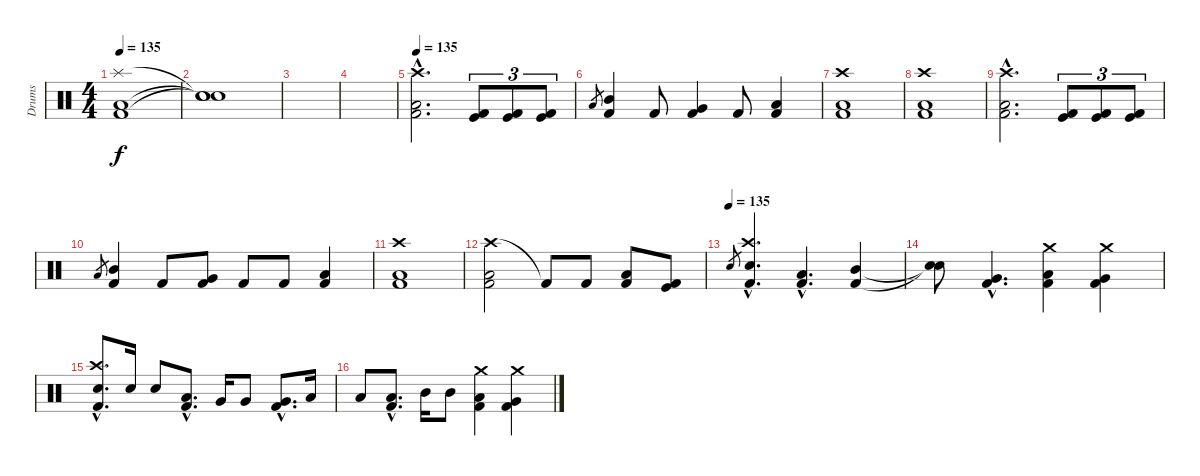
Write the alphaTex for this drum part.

\track ("Drums" "Drums") {instrument percussion}
\staff {score}
\articulation defaults
\ts (4 4)
\tempo 135
\clef neutral
\ks c
("Splash (hit)" "Low Floor Tom (hit)" "Kick (hit) 2").1{dy f} |
("Snare (hit)"{t} "Snare (hit)"{t} "Snare (hit)"{t}).1 |
|
|
\tempo 135
("Crash high (hit)"{hac} "Low Floor Tom (hit)"{hac} "Kick (hit) 2"{hac}).2{d volume 16} ("Kick (hit)" "Kick (hit) 2").8{tu (3 2)} ("Kick (hit)" "Kick (hit) 2").8{tu (3 2)} ("Kick (hit)" "Kick (hit) 2").8{tu (3 2)} |
"Low Tom (hit)".8{gr} ("Mid Tom (hit)" "Kick (hit) 2").4 "Kick (hit) 2".8 ("Very Low Tom (hit)" "Kick (hit) 2").4 "Kick (hit) 2".8 ("Low Floor Tom (hit)" "Kick (hit) 2").4 |
("Crash high (hit)" "Low Floor Tom (hit)" "Kick (hit) 2").1 |
("Crash high (hit)" "Low Floor Tom (hit)" "Kick (hit) 2").1 |
("Crash high (hit)"{hac} "Low Floor Tom (hit)"{hac} "Kick (hit) 2"{hac}).2{d volume 16} ("Kick (hit)" "Kick (hit) 2").8{tu (3 2)} ("Kick (hit)" "Kick (hit) 2").8{tu (3 2)} ("Kick (hit)" "Kick (hit) 2").8{tu (3 2)} |
"Low Tom (hit)".8{gr} ("Mid Tom (hit)" "Kick (hit) 2").4 "Kick (hit) 2".8 ("Very Low Tom (hit)" "Kick (hit) 2").8 "Kick (hit) 2".8 "Kick (hit) 2".8 ("Low Floor Tom (hit)" "Kick (hit) 2").4 |
("Crash high (hit)" "Low Floor Tom (hit)" "Kick (hit) 2").1 |
("Crash high (hit)" "Low Floor Tom (hit)" "Kick (hit) 2").2 "Kick (hit) 2"{t}.8 "Kick (hit) 2".8 ("Low Floor Tom (hit)" "Kick (hit) 2").8 ("Kick (hit)" "Kick (hit) 2").8 |
\tempo (135)
"Snare (hit) 2".8{gr} ("Crash high (hit)"{hac} "Electric Snare (hit)"{hac} "Kick (hit) 2"{hac}).4{d} ("Low Floor Tom (hit)"{hac} "Kick (hit) 2"{hac}).4{d} ("Mid Tom (hit)" "Kick (hit) 2").4 |
("Snare (hit)"{t} "Snare (hit)"{t}).8 ("Very Low Tom (hit)"{hac} "Kick (hit) 2"{hac}).4{d} ("Crash medium (hit)" "Low Floor Tom (hit)" "Kick (hit) 2").4 ("Crash medium (hit)" "Very Low Tom (hit)" "Kick (hit) 2").4 |
("Crash high (hit)"{hac} "Electric Snare (hit)"{hac} "Kick (hit) 2"{hac}).8{d} "Snare (hit) 2".16 "Snare (hit) 2".8 ("Low Floor Tom (hit)"{hac} "Kick (hit) 2"{hac}).8{d} "Very Low Tom (hit)".16 "Very Low Tom (hit)".8 ("Very Low Tom (hit)"{hac} "Kick (hit) 2"{hac}).8{d} "Low Tom (hit)".16 |
"Low Tom (hit)".8 ("Low Tom (hit)"{hac} "Kick (hit) 2"{hac}).8{d} "Mid Tom (hit)".16 "Mid Tom (hit)".8 ("Crash medium (hit)" "Low Floor Tom (hit)" "Kick (hit) 2").4 ("Crash medium (hit)" "Very Low Tom (hit)" "Kick (hit) 2").4
